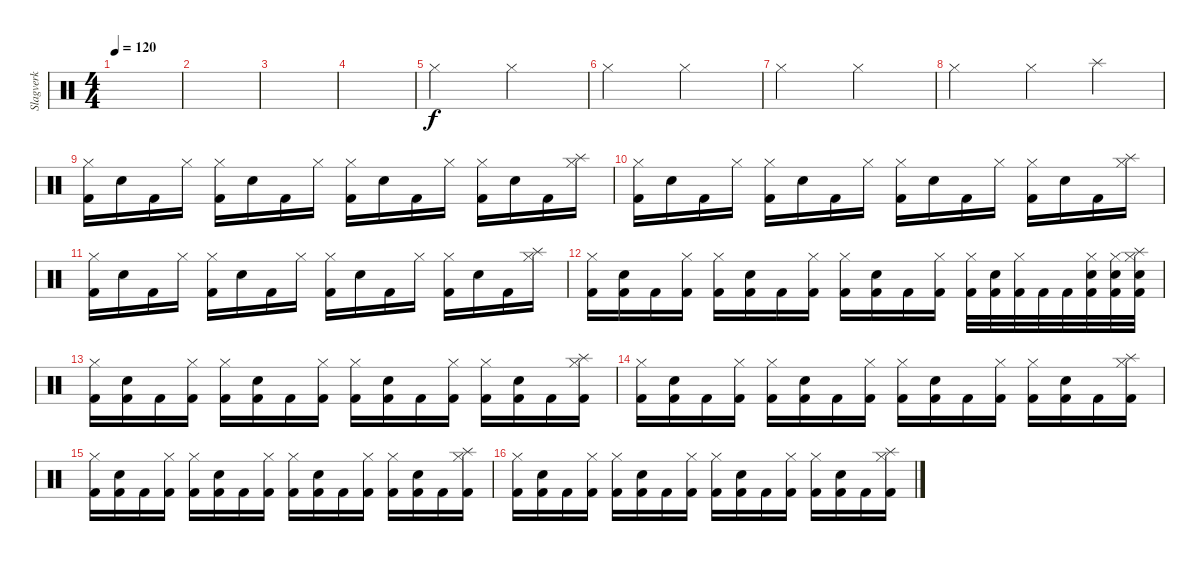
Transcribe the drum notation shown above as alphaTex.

\track ("Slagverk" "Slagverk") {instrument percussion}
\staff {score}
\articulation defaults
\ts (4 4)
\tempo 120
\clef neutral
\ks c
|
|
|
|
"Hi-Hat (closed)".2 "Hi-Hat (closed)".2 |
"Hi-Hat (closed)".2 "Hi-Hat (closed)".2 |
"Hi-Hat (closed)".2 "Hi-Hat (closed)".2 |
"Hi-Hat (closed)".2 "Hi-Hat (closed)".4 "Splash (hit)".4 |
("Kick (hit) 2" "Hi-Hat (closed)").16 "Electric Snare (hit)".16 "Kick (hit) 2".16 "Hi-Hat (closed)".16 ("Kick (hit) 2" "Hi-Hat (closed)").16 "Electric Snare (hit)".16 "Kick (hit) 2".16 "Hi-Hat (closed)".16 ("Kick (hit) 2" "Hi-Hat (closed)").16 "Electric Snare (hit)".16 "Kick (hit) 2".16 "Hi-Hat (closed)".16 ("Kick (hit) 2" "Hi-Hat (closed)").16 "Electric Snare (hit)".16 "Kick (hit) 2".16 ("Hi-Hat (closed)" "Splash (hit)").16 |
("Kick (hit) 2" "Hi-Hat (closed)").16 "Electric Snare (hit)".16 "Kick (hit) 2".16 "Hi-Hat (closed)".16 ("Kick (hit) 2" "Hi-Hat (closed)").16 "Electric Snare (hit)".16 "Kick (hit) 2".16 "Hi-Hat (closed)".16 ("Kick (hit) 2" "Hi-Hat (closed)").16 "Electric Snare (hit)".16 "Kick (hit) 2".16 "Hi-Hat (closed)".16 ("Kick (hit) 2" "Hi-Hat (closed)").16 "Electric Snare (hit)".16 "Kick (hit) 2".16 ("Hi-Hat (closed)" "Splash (hit)").16 |
("Kick (hit) 2" "Hi-Hat (closed)").16 "Electric Snare (hit)".16 "Kick (hit) 2".16 "Hi-Hat (closed)".16 ("Kick (hit) 2" "Hi-Hat (closed)").16 "Electric Snare (hit)".16 "Kick (hit) 2".16 "Hi-Hat (closed)".16 ("Kick (hit) 2" "Hi-Hat (closed)").16 "Electric Snare (hit)".16 "Kick (hit) 2".16 "Hi-Hat (closed)".16 ("Kick (hit) 2" "Hi-Hat (closed)").16 "Electric Snare (hit)".16 "Kick (hit) 2".16 ("Hi-Hat (closed)" "Splash (hit)").16 |
("Kick (hit) 2" "Hi-Hat (closed)").16 ("Kick (hit) 2" "Electric Snare (hit)").16 "Kick (hit) 2".16 ("Kick (hit) 2" "Hi-Hat (closed)").16 ("Kick (hit) 2" "Hi-Hat (closed)").16 ("Kick (hit) 2" "Electric Snare (hit)").16 "Kick (hit) 2".16 ("Kick (hit) 2" "Hi-Hat (closed)").16 ("Kick (hit) 2" "Hi-Hat (closed)").16 ("Kick (hit) 2" "Electric Snare (hit)").16 "Kick (hit) 2".16 ("Kick (hit) 2" "Hi-Hat (closed)").16 ("Kick (hit) 2" "Hi-Hat (closed)").32 ("Kick (hit) 2" "Electric Snare (hit)").32 ("Kick (hit) 2" "Hi-Hat (closed)").32 "Kick (hit) 2".32 "Kick (hit) 2".32 ("Kick (hit) 2" "Hi-Hat (closed)" "Electric Snare (hit)").32 ("Kick (hit) 2" "Hi-Hat (closed)" "Electric Snare (hit)").32 ("Kick (hit) 2" "Hi-Hat (closed)" "Electric Snare (hit)" "Splash (hit)").32 |
("Kick (hit) 2" "Hi-Hat (closed)").16 ("Kick (hit) 2" "Electric Snare (hit)").16 "Kick (hit) 2".16 ("Kick (hit) 2" "Hi-Hat (closed)").16 ("Kick (hit) 2" "Hi-Hat (closed)").16 ("Kick (hit) 2" "Electric Snare (hit)").16 "Kick (hit) 2".16 ("Kick (hit) 2" "Hi-Hat (closed)").16 ("Kick (hit) 2" "Hi-Hat (closed)").16 ("Kick (hit) 2" "Electric Snare (hit)").16 "Kick (hit) 2".16 ("Kick (hit) 2" "Hi-Hat (closed)").16 ("Kick (hit) 2" "Hi-Hat (closed)").16 ("Kick (hit) 2" "Electric Snare (hit)").16 "Kick (hit) 2".16 ("Kick (hit) 2" "Hi-Hat (closed)" "Splash (hit)").16 |
("Kick (hit) 2" "Hi-Hat (closed)").16 ("Kick (hit) 2" "Electric Snare (hit)").16 "Kick (hit) 2".16 ("Kick (hit) 2" "Hi-Hat (closed)").16 ("Kick (hit) 2" "Hi-Hat (closed)").16 ("Kick (hit) 2" "Electric Snare (hit)").16 "Kick (hit) 2".16 ("Kick (hit) 2" "Hi-Hat (closed)").16 ("Kick (hit) 2" "Hi-Hat (closed)").16 ("Kick (hit) 2" "Electric Snare (hit)").16 "Kick (hit) 2".16 ("Kick (hit) 2" "Hi-Hat (closed)").16 ("Kick (hit) 2" "Hi-Hat (closed)").16 ("Kick (hit) 2" "Electric Snare (hit)").16 "Kick (hit) 2".16 ("Kick (hit) 2" "Hi-Hat (closed)" "Splash (hit)").16 |
("Kick (hit) 2" "Hi-Hat (closed)").16 ("Kick (hit) 2" "Electric Snare (hit)").16 "Kick (hit) 2".16 ("Kick (hit) 2" "Hi-Hat (closed)").16 ("Kick (hit) 2" "Hi-Hat (closed)").16 ("Kick (hit) 2" "Electric Snare (hit)").16 "Kick (hit) 2".16 ("Kick (hit) 2" "Hi-Hat (closed)").16 ("Kick (hit) 2" "Hi-Hat (closed)").16 ("Kick (hit) 2" "Electric Snare (hit)").16 "Kick (hit) 2".16 ("Kick (hit) 2" "Hi-Hat (closed)").16 ("Kick (hit) 2" "Hi-Hat (closed)").16 ("Kick (hit) 2" "Electric Snare (hit)").16 "Kick (hit) 2".16 ("Kick (hit) 2" "Hi-Hat (closed)" "Splash (hit)").16 |
("Kick (hit) 2" "Hi-Hat (closed)").16 ("Kick (hit) 2" "Electric Snare (hit)").16 "Kick (hit) 2".16 ("Kick (hit) 2" "Hi-Hat (closed)").16 ("Kick (hit) 2" "Hi-Hat (closed)").16 ("Kick (hit) 2" "Electric Snare (hit)").16 "Kick (hit) 2".16 ("Kick (hit) 2" "Hi-Hat (closed)").16 ("Kick (hit) 2" "Hi-Hat (closed)").16 ("Kick (hit) 2" "Electric Snare (hit)").16 "Kick (hit) 2".16 ("Kick (hit) 2" "Hi-Hat (closed)").16 ("Kick (hit) 2" "Hi-Hat (closed)").16 ("Kick (hit) 2" "Electric Snare (hit)").16 "Kick (hit) 2".16 ("Kick (hit) 2" "Hi-Hat (closed)" "Splash (hit)").16
